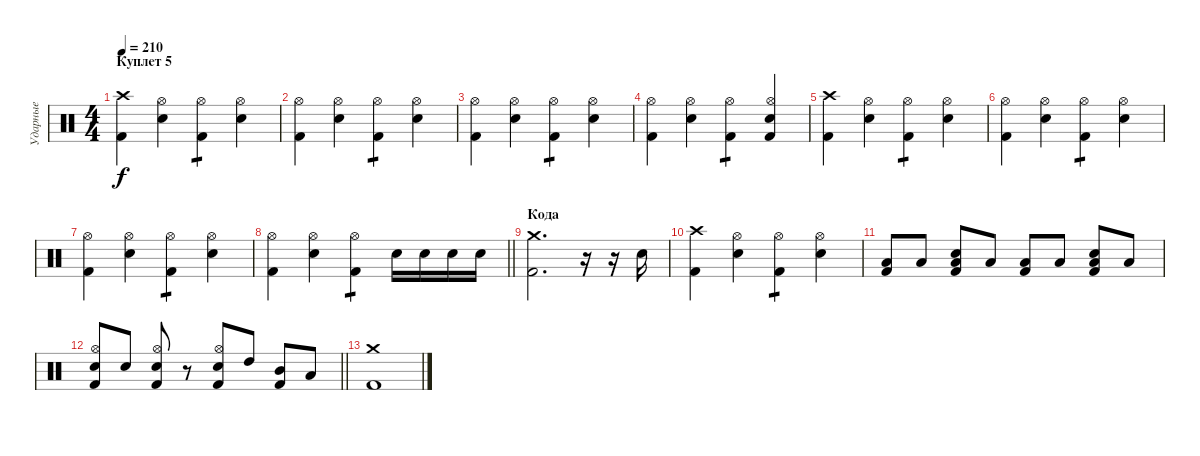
\track ("Ударные" "Ударные") {instrument percussion}
\staff {score}
\articulation defaults
\ts (4 4)
\section ("" "Куплет 5")
\tempo 210
\clef neutral
\ks c
("Kick (hit) 2" "Crash high (hit)").4{dy f} ("Hi-Hat (open)" "Electric Snare (hit)").4 ("Kick (hit) 2" "Hi-Hat (open)").4{tp 1} ("Hi-Hat (open)" "Electric Snare (hit)").4 |
("Kick (hit) 2" "Hi-Hat (open)").4 ("Hi-Hat (open)" "Electric Snare (hit)").4 ("Kick (hit) 2" "Hi-Hat (open)").4{tp 1} ("Hi-Hat (open)" "Electric Snare (hit)").4 |
("Kick (hit) 2" "Hi-Hat (open)").4 ("Hi-Hat (open)" "Electric Snare (hit)").4 ("Kick (hit) 2" "Hi-Hat (open)").4{tp 1} ("Hi-Hat (open)" "Electric Snare (hit)").4 |
("Kick (hit) 2" "Hi-Hat (open)").4 ("Hi-Hat (open)" "Electric Snare (hit)").4 ("Kick (hit) 2" "Hi-Hat (open)").4{tp 1} ("Hi-Hat (open)" "Electric Snare (hit)" "Kick (hit) 2").4 |
("Kick (hit) 2" "Crash high (hit)").4 ("Hi-Hat (open)" "Electric Snare (hit)").4 ("Kick (hit) 2" "Hi-Hat (open)").4{tp 1} ("Hi-Hat (open)" "Electric Snare (hit)").4 |
("Kick (hit) 2" "Hi-Hat (open)").4 ("Hi-Hat (open)" "Electric Snare (hit)").4 ("Kick (hit) 2" "Hi-Hat (open)").4{tp 1} ("Hi-Hat (open)" "Electric Snare (hit)").4 |
("Kick (hit) 2" "Hi-Hat (open)").4 ("Hi-Hat (open)" "Electric Snare (hit)").4 ("Kick (hit) 2" "Hi-Hat (open)").4{tp 1} ("Hi-Hat (open)" "Electric Snare (hit)").4 |
\barLineRight lightlight
("Kick (hit) 2" "Hi-Hat (open)").4 ("Hi-Hat (open)" "Electric Snare (hit)").4 ("Kick (hit) 2" "Hi-Hat (open)").4{tp 1} "Electric Snare (hit)".16 "Electric Snare (hit)".16 "Electric Snare (hit)".16 "Electric Snare (hit)".16 |
\section ("" "Кода")
("Kick (hit) 2" "Crash medium (hit)").2{d} r.16 r.16 "Electric Snare (hit)".16 |
("Kick (hit) 2" "Crash high (hit)").4 ("Hi-Hat (open)" "Electric Snare (hit)").4 ("Kick (hit) 2" "Hi-Hat (open)").4{tp 1} ("Hi-Hat (open)" "Electric Snare (hit)").4 |
("Kick (hit) 2" "Low Floor Tom (hit)").8 "Low Tom (hit)".8 ("Kick (hit) 2" "Low Floor Tom (hit)" "Electric Snare (hit)").8 "Low Tom (hit)".8 ("Kick (hit) 2" "Low Floor Tom (hit)").8 "Low Tom (hit)".8 ("Kick (hit) 2" "Low Floor Tom (hit)" "Electric Snare (hit)").8 "Low Tom (hit)".8 |
\barLineRight lightlight
("Kick (hit) 2" "Hi-Hat (open)" "Electric Snare (hit)").8 "Electric Snare (hit)".8 ("Kick (hit) 2" "Hi-Hat (open)" "Electric Snare (hit)").8 r.8 ("Kick (hit) 2" "Hi-Hat (open)" "Electric Snare (hit)").8 "High Tom (hit)".8 ("Kick (hit) 2" "Mid Tom (hit)").8 "Low Tom (hit)".8 |
("Kick (hit) 2" "Crash medium (hit)").1
